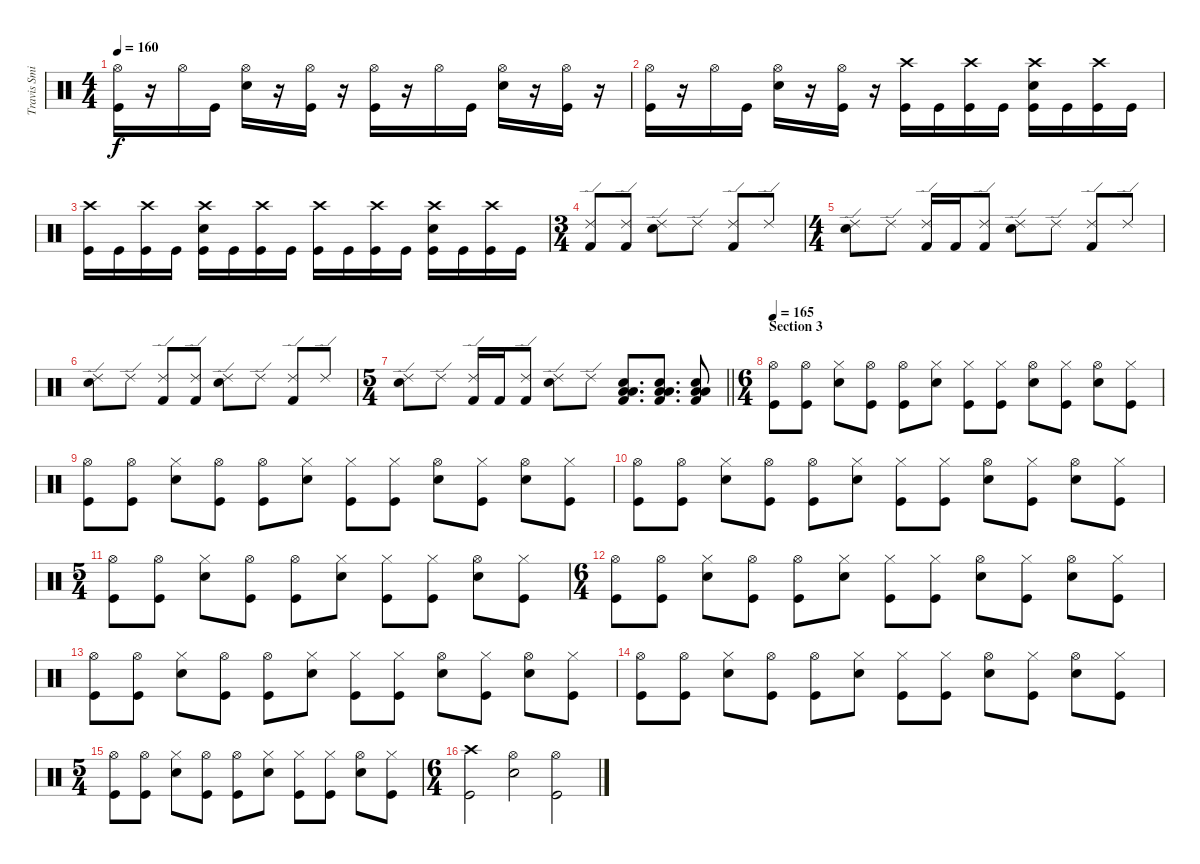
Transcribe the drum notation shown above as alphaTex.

\track ("Travis Smith" "Travis Smi") {instrument percussion}
\staff {score}
\articulation defaults
\ts (4 4)
\tempo 160
\clef neutral
\ks c
("Hi-Hat (open)" "Kick (hit)").16{dy f} r.16 "Hi-Hat (open)".16 "Kick (hit)".16 ("Hi-Hat (open)" "Electric Snare (hit)").16 r.16 ("Hi-Hat (open)" "Kick (hit)").16 r.16 ("Hi-Hat (open)" "Kick (hit)").16 r.16 "Hi-Hat (open)".16 "Kick (hit)".16 ("Hi-Hat (open)" "Electric Snare (hit)").16 r.16 ("Hi-Hat (open)" "Kick (hit)").16 r.16 |
("Hi-Hat (open)" "Kick (hit)").16 r.16 "Hi-Hat (open)".16 "Kick (hit)".16 ("Hi-Hat (open)" "Electric Snare (hit)").16 r.16 ("Hi-Hat (open)" "Kick (hit)").16 r.16 ("Crash high (hit)" "Kick (hit)").16 "Kick (hit)".16 ("Crash high (hit)" "Kick (hit)").16 "Kick (hit)".16 ("Crash high (hit)" "Electric Snare (hit)" "Kick (hit)").16 "Kick (hit)".16 ("Crash high (hit)" "Kick (hit)").16 "Kick (hit)".16 |
("Crash high (hit)" "Kick (hit)").16 "Kick (hit)".16 ("Crash high (hit)" "Kick (hit)").16 "Kick (hit)".16 ("Crash high (hit)" "Electric Snare (hit)" "Kick (hit)").16 "Kick (hit)".16 ("Crash high (hit)" "Kick (hit)").16 "Kick (hit)".16 ("Crash high (hit)" "Kick (hit)").16 "Kick (hit)".16 ("Crash high (hit)" "Kick (hit)").16 "Kick (hit)".16 ("Crash high (hit)" "Electric Snare (hit)" "Kick (hit)").16 "Kick (hit)".16 ("Crash high (hit)" "Kick (hit)").16 "Kick (hit)".16 |
\ts (3 4)
("Ride (edge) 2" "Kick (hit) 2").8 ("Ride (edge) 2" "Kick (hit) 2").8 ("Ride (edge) 2" "Snare (hit) 2").8 "Ride (edge) 2".8 ("Ride (edge) 2" "Kick (hit) 2").8 "Ride (edge) 2".8 |
\ts (4 4)
("Ride (edge) 2" "Snare (hit) 2").8 "Ride (edge) 2".8 ("Ride (edge) 2" "Kick (hit) 2").16 "Kick (hit) 2".16 ("Ride (edge) 2" "Kick (hit) 2").8 ("Ride (edge) 2" "Snare (hit) 2").8 "Ride (edge) 2".8 ("Ride (edge) 2" "Kick (hit) 2").8 "Ride (edge) 2".8 |
("Ride (edge) 2" "Snare (hit) 2").8 "Ride (edge) 2".8 ("Ride (edge) 2" "Kick (hit) 2").8 ("Ride (edge) 2" "Kick (hit) 2").8 ("Ride (edge) 2" "Snare (hit) 2").8 "Ride (edge) 2".8 ("Ride (edge) 2" "Kick (hit) 2").8 "Ride (edge) 2".8 |
\ts (5 4)
\barLineRight lightlight
("Ride (edge) 2" "Snare (hit) 2").8 "Ride (edge) 2".8 ("Ride (edge) 2" "Kick (hit) 2").16 "Kick (hit) 2".16 ("Ride (edge) 2" "Kick (hit) 2").8 ("Ride (edge) 2" "Snare (hit) 2").8 "Ride (edge) 2".8 ("Snare (hit) 2" "Low Floor Tom (hit)" "Low Tom (hit)" "Kick (hit) 2").8{d} ("Snare (hit) 2" "Low Tom (hit)" "Low Floor Tom (hit)" "Kick (hit) 2").8{d} ("Snare (hit) 2" "Low Tom (hit)" "Low Floor Tom (hit)" "Kick (hit) 2").8 |
\ts (6 4)
\section ("" "Section 3")
\tempo 165
("Hi-Hat (open)" "Kick (hit)").8 ("Hi-Hat (open)" "Kick (hit)").8 ("Hi-Hat (closed)" "Electric Snare (hit)").8 ("Hi-Hat (open)" "Kick (hit)").8 ("Hi-Hat (open)" "Kick (hit)").8 ("Hi-Hat (closed)" "Electric Snare (hit)").8 ("Hi-Hat (closed)" "Kick (hit)").8 ("Hi-Hat (closed)" "Kick (hit)").8 ("Hi-Hat (open)" "Electric Snare (hit)").8 ("Hi-Hat (closed)" "Kick (hit)").8 ("Hi-Hat (open)" "Electric Snare (hit)").8 ("Hi-Hat (closed)" "Kick (hit)").8 |
("Hi-Hat (open)" "Kick (hit)").8 ("Hi-Hat (open)" "Kick (hit)").8 ("Hi-Hat (closed)" "Electric Snare (hit)").8 ("Hi-Hat (open)" "Kick (hit)").8 ("Hi-Hat (open)" "Kick (hit)").8 ("Hi-Hat (closed)" "Electric Snare (hit)").8 ("Hi-Hat (closed)" "Kick (hit)").8 ("Hi-Hat (closed)" "Kick (hit)").8 ("Hi-Hat (open)" "Electric Snare (hit)").8 ("Hi-Hat (closed)" "Kick (hit)").8 ("Hi-Hat (open)" "Electric Snare (hit)").8 ("Hi-Hat (closed)" "Kick (hit)").8 |
("Hi-Hat (open)" "Kick (hit)").8 ("Hi-Hat (open)" "Kick (hit)").8 ("Hi-Hat (closed)" "Electric Snare (hit)").8 ("Hi-Hat (open)" "Kick (hit)").8 ("Hi-Hat (open)" "Kick (hit)").8 ("Hi-Hat (closed)" "Electric Snare (hit)").8 ("Hi-Hat (closed)" "Kick (hit)").8 ("Hi-Hat (closed)" "Kick (hit)").8 ("Hi-Hat (open)" "Electric Snare (hit)").8 ("Hi-Hat (closed)" "Kick (hit)").8 ("Hi-Hat (open)" "Electric Snare (hit)").8 ("Hi-Hat (closed)" "Kick (hit)").8 |
\ts (5 4)
("Hi-Hat (open)" "Kick (hit)").8 ("Hi-Hat (open)" "Kick (hit)").8 ("Hi-Hat (closed)" "Electric Snare (hit)").8 ("Hi-Hat (open)" "Kick (hit)").8 ("Hi-Hat (open)" "Kick (hit)").8 ("Hi-Hat (closed)" "Electric Snare (hit)").8 ("Hi-Hat (closed)" "Kick (hit)").8 ("Hi-Hat (closed)" "Kick (hit)").8 ("Hi-Hat (open)" "Electric Snare (hit)").8 ("Hi-Hat (closed)" "Kick (hit)").8 |
\ts (6 4)
("Hi-Hat (open)" "Kick (hit)").8 ("Hi-Hat (open)" "Kick (hit)").8 ("Hi-Hat (closed)" "Electric Snare (hit)").8 ("Hi-Hat (open)" "Kick (hit)").8 ("Hi-Hat (open)" "Kick (hit)").8 ("Hi-Hat (closed)" "Electric Snare (hit)").8 ("Hi-Hat (closed)" "Kick (hit)").8 ("Hi-Hat (closed)" "Kick (hit)").8 ("Hi-Hat (open)" "Electric Snare (hit)").8 ("Hi-Hat (closed)" "Kick (hit)").8 ("Hi-Hat (open)" "Electric Snare (hit)").8 ("Hi-Hat (closed)" "Kick (hit)").8 |
("Hi-Hat (open)" "Kick (hit)").8 ("Hi-Hat (open)" "Kick (hit)").8 ("Hi-Hat (closed)" "Electric Snare (hit)").8 ("Hi-Hat (open)" "Kick (hit)").8 ("Hi-Hat (open)" "Kick (hit)").8 ("Hi-Hat (closed)" "Electric Snare (hit)").8 ("Hi-Hat (closed)" "Kick (hit)").8 ("Hi-Hat (closed)" "Kick (hit)").8 ("Hi-Hat (open)" "Electric Snare (hit)").8 ("Hi-Hat (closed)" "Kick (hit)").8 ("Hi-Hat (open)" "Electric Snare (hit)").8 ("Hi-Hat (closed)" "Kick (hit)").8 |
("Hi-Hat (open)" "Kick (hit)").8 ("Hi-Hat (open)" "Kick (hit)").8 ("Hi-Hat (closed)" "Electric Snare (hit)").8 ("Hi-Hat (open)" "Kick (hit)").8 ("Hi-Hat (open)" "Kick (hit)").8 ("Hi-Hat (closed)" "Electric Snare (hit)").8 ("Hi-Hat (closed)" "Kick (hit)").8 ("Hi-Hat (closed)" "Kick (hit)").8 ("Hi-Hat (open)" "Electric Snare (hit)").8 ("Hi-Hat (closed)" "Kick (hit)").8 ("Hi-Hat (open)" "Electric Snare (hit)").8 ("Hi-Hat (closed)" "Kick (hit)").8 |
\ts (5 4)
("Hi-Hat (open)" "Kick (hit)").8 ("Hi-Hat (open)" "Kick (hit)").8 ("Hi-Hat (closed)" "Electric Snare (hit)").8 ("Hi-Hat (open)" "Kick (hit)").8 ("Hi-Hat (open)" "Kick (hit)").8 ("Hi-Hat (closed)" "Electric Snare (hit)").8 ("Hi-Hat (closed)" "Kick (hit)").8 ("Hi-Hat (closed)" "Kick (hit)").8 ("Hi-Hat (open)" "Electric Snare (hit)").8 ("Hi-Hat (closed)" "Kick (hit)").8 |
\ts (6 4)
("Crash high (hit)" "Kick (hit)").2 ("Hi-Hat (open)" "Electric Snare (hit)").2 ("Hi-Hat (open)" "Kick (hit)").2
